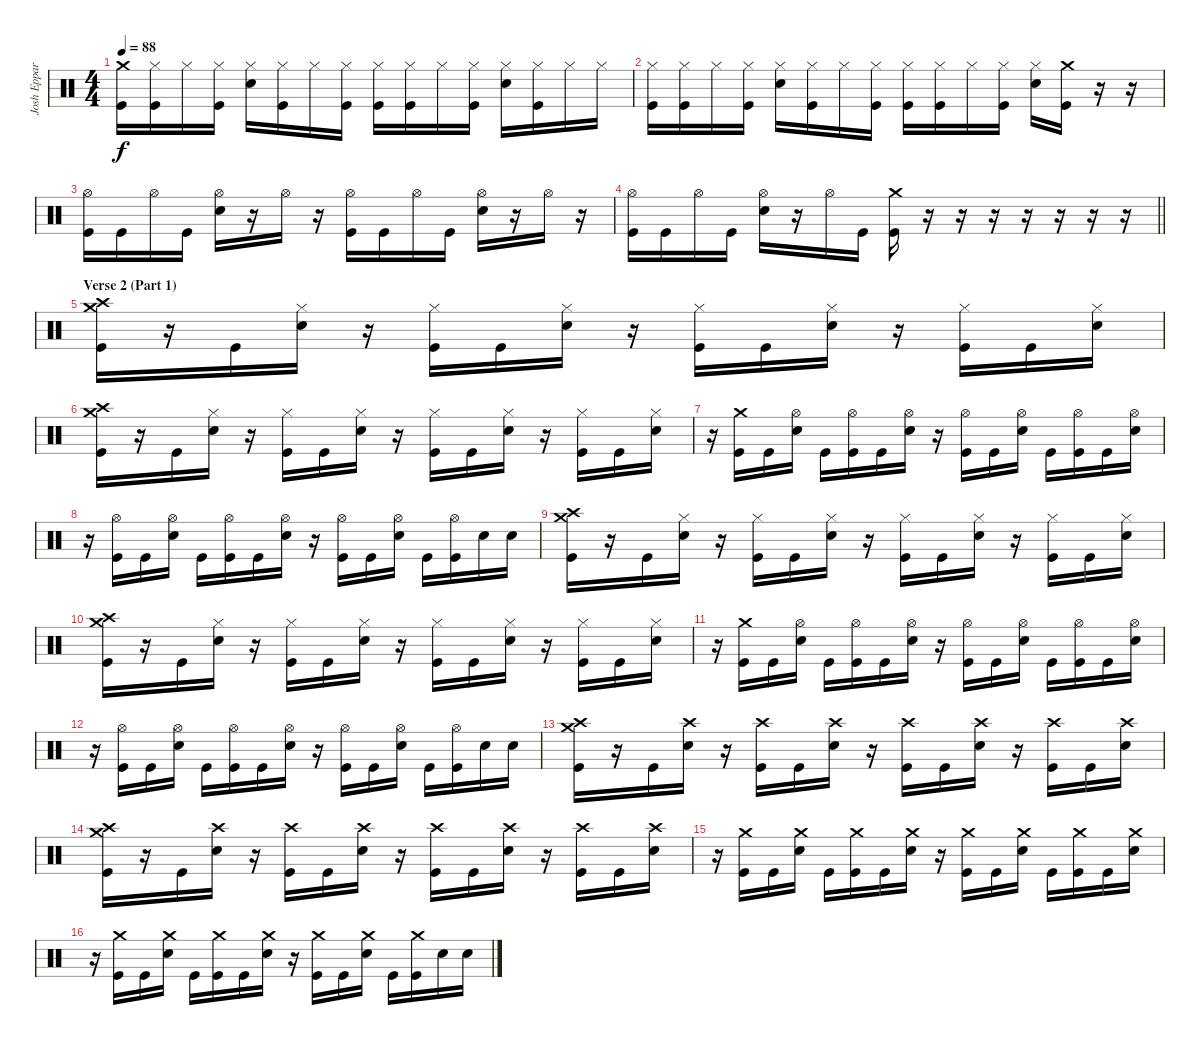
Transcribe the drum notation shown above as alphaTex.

\track ("Josh Eppard (Drums)" "Josh Eppar") {instrument percussion}
\staff {score}
\articulation defaults
\ts (4 4)
\tempo 88
\clef neutral
\ks c
("Crash medium (hit)" "Kick (hit)").16{dy f} ("Hi-Hat (closed)" "Kick (hit)").16 "Hi-Hat (closed)".16 ("Hi-Hat (closed)" "Kick (hit)").16 ("Hi-Hat (closed)" "Electric Snare (hit)").16 ("Hi-Hat (closed)" "Kick (hit)").16 "Hi-Hat (closed)".16 ("Hi-Hat (closed)" "Kick (hit)").16 ("Hi-Hat (closed)" "Kick (hit)").16 ("Hi-Hat (closed)" "Kick (hit)").16 "Hi-Hat (closed)".16 ("Hi-Hat (closed)" "Kick (hit)").16 ("Hi-Hat (closed)" "Electric Snare (hit)").16 ("Hi-Hat (closed)" "Kick (hit)").16 "Hi-Hat (closed)".16 "Hi-Hat (closed)".16 |
("Hi-Hat (closed)" "Kick (hit)").16 ("Hi-Hat (closed)" "Kick (hit)").16 "Hi-Hat (closed)".16 ("Hi-Hat (closed)" "Kick (hit)").16 ("Hi-Hat (closed)" "Electric Snare (hit)").16 ("Hi-Hat (closed)" "Kick (hit)").16 "Hi-Hat (closed)".16 ("Hi-Hat (closed)" "Kick (hit)").16 ("Hi-Hat (closed)" "Kick (hit)").16 ("Hi-Hat (closed)" "Kick (hit)").16 "Hi-Hat (closed)".16 ("Hi-Hat (closed)" "Kick (hit)").16 ("Hi-Hat (closed)" "Electric Snare (hit)").16 ("Crash medium (hit)" "Kick (hit)").16 r.16 r.16 |
("Hi-Hat (open)" "Kick (hit)").16 "Kick (hit)".16 "Hi-Hat (open)".16 "Kick (hit)".16 ("Hi-Hat (open)" "Electric Snare (hit)").16 r.16 "Hi-Hat (open)".16 r.16 ("Hi-Hat (open)" "Kick (hit)").16 "Kick (hit)".16 "Hi-Hat (open)".16 "Kick (hit)".16 ("Hi-Hat (open)" "Electric Snare (hit)").16 r.16 "Hi-Hat (open)".16 r.16 |
\barLineRight lightlight
("Hi-Hat (open)" "Kick (hit)").16 "Kick (hit)".16 "Hi-Hat (open)".16 "Kick (hit)".16 ("Hi-Hat (open)" "Electric Snare (hit)").16 r.16 "Hi-Hat (open)".16 "Kick (hit)".16 ("Crash medium (hit)" "Kick (hit)").16 r.16 r.16 r.16 r.16 r.16 r.16 r.16 |
\section ("" "Verse 2 (Part 1)")
("Crash high (hit)" "Crash medium (hit)" "Kick (hit)").16 r.16 "Kick (hit)".16 ("Hi-Hat (closed)" "Electric Snare (hit)").16 r.16 ("Hi-Hat (closed)" "Kick (hit)").16 "Kick (hit)".16 ("Hi-Hat (closed)" "Electric Snare (hit)").16 r.16 ("Hi-Hat (closed)" "Kick (hit)").16 "Kick (hit)".16 ("Hi-Hat (closed)" "Electric Snare (hit)").16 r.16 ("Hi-Hat (closed)" "Kick (hit)").16 "Kick (hit)".16 ("Hi-Hat (closed)" "Electric Snare (hit)").16 |
("Crash high (hit)" "Crash medium (hit)" "Kick (hit)").16 r.16 "Kick (hit)".16 ("Hi-Hat (closed)" "Electric Snare (hit)").16 r.16 ("Hi-Hat (closed)" "Kick (hit)").16 "Kick (hit)".16 ("Hi-Hat (closed)" "Electric Snare (hit)").16 r.16 ("Hi-Hat (closed)" "Kick (hit)").16 "Kick (hit)".16 ("Hi-Hat (closed)" "Electric Snare (hit)").16 r.16 ("Hi-Hat (closed)" "Kick (hit)").16 "Kick (hit)".16 ("Hi-Hat (closed)" "Electric Snare (hit)").16 |
r.16 ("Crash medium (hit)" "Kick (hit)").16 "Kick (hit)".16 ("Hi-Hat (open)" "Electric Snare (hit)").16 "Kick (hit)".16 ("Hi-Hat (open)" "Kick (hit)").16 "Kick (hit)".16 ("Hi-Hat (open)" "Electric Snare (hit)").16 r.16 ("Hi-Hat (open)" "Kick (hit)").16 "Kick (hit)".16 ("Hi-Hat (open)" "Electric Snare (hit)").16 "Kick (hit)".16 ("Hi-Hat (open)" "Kick (hit)").16 "Kick (hit)".16 ("Hi-Hat (open)" "Electric Snare (hit)").16 |
r.16 ("Hi-Hat (open)" "Kick (hit)").16 "Kick (hit)".16 ("Hi-Hat (open)" "Electric Snare (hit)").16 "Kick (hit)".16 ("Hi-Hat (open)" "Kick (hit)").16 "Kick (hit)".16 ("Hi-Hat (open)" "Electric Snare (hit)").16 r.16 ("Hi-Hat (open)" "Kick (hit)").16 "Kick (hit)".16 ("Hi-Hat (open)" "Electric Snare (hit)").16 "Kick (hit)".16 ("Hi-Hat (open)" "Kick (hit)").16 "Electric Snare (hit)".16 "Electric Snare (hit)".16 |
("Crash high (hit)" "Crash medium (hit)" "Kick (hit)").16 r.16 "Kick (hit)".16 ("Hi-Hat (closed)" "Electric Snare (hit)").16 r.16 ("Hi-Hat (closed)" "Kick (hit)").16 "Kick (hit)".16 ("Hi-Hat (closed)" "Electric Snare (hit)").16 r.16 ("Hi-Hat (closed)" "Kick (hit)").16 "Kick (hit)".16 ("Hi-Hat (closed)" "Electric Snare (hit)").16 r.16 ("Hi-Hat (closed)" "Kick (hit)").16 "Kick (hit)".16 ("Hi-Hat (closed)" "Electric Snare (hit)").16 |
("Crash high (hit)" "Crash medium (hit)" "Kick (hit)").16 r.16 "Kick (hit)".16 ("Hi-Hat (closed)" "Electric Snare (hit)").16 r.16 ("Hi-Hat (closed)" "Kick (hit)").16 "Kick (hit)".16 ("Hi-Hat (closed)" "Electric Snare (hit)").16 r.16 ("Hi-Hat (closed)" "Kick (hit)").16 "Kick (hit)".16 ("Hi-Hat (closed)" "Electric Snare (hit)").16 r.16 ("Hi-Hat (closed)" "Kick (hit)").16 "Kick (hit)".16 ("Hi-Hat (closed)" "Electric Snare (hit)").16 |
r.16 ("Crash medium (hit)" "Kick (hit)").16 "Kick (hit)".16 ("Hi-Hat (open)" "Electric Snare (hit)").16 "Kick (hit)".16 ("Hi-Hat (open)" "Kick (hit)").16 "Kick (hit)".16 ("Hi-Hat (open)" "Electric Snare (hit)").16 r.16 ("Hi-Hat (open)" "Kick (hit)").16 "Kick (hit)".16 ("Hi-Hat (open)" "Electric Snare (hit)").16 "Kick (hit)".16 ("Hi-Hat (open)" "Kick (hit)").16 "Kick (hit)".16 ("Hi-Hat (open)" "Electric Snare (hit)").16 |
r.16 ("Hi-Hat (open)" "Kick (hit)").16 "Kick (hit)".16 ("Hi-Hat (open)" "Electric Snare (hit)").16 "Kick (hit)".16 ("Hi-Hat (open)" "Kick (hit)").16 "Kick (hit)".16 ("Hi-Hat (open)" "Electric Snare (hit)").16 r.16 ("Hi-Hat (open)" "Kick (hit)").16 "Kick (hit)".16 ("Hi-Hat (open)" "Electric Snare (hit)").16 "Kick (hit)".16 ("Hi-Hat (open)" "Kick (hit)").16 "Electric Snare (hit)".16 "Electric Snare (hit)".16 |
("Crash high (hit)" "Crash medium (hit)" "Kick (hit)").16 r.16 "Kick (hit)".16 ("Crash high (hit)" "Electric Snare (hit)").16 r.16 ("Crash high (hit)" "Kick (hit)").16 "Kick (hit)".16 ("Crash high (hit)" "Electric Snare (hit)").16 r.16 ("Crash high (hit)" "Kick (hit)").16 "Kick (hit)".16 ("Crash high (hit)" "Electric Snare (hit)").16 r.16 ("Crash high (hit)" "Kick (hit)").16 "Kick (hit)".16 ("Crash high (hit)" "Electric Snare (hit)").16 |
("Crash high (hit)" "Crash medium (hit)" "Kick (hit)").16 r.16 "Kick (hit)".16 ("Crash high (hit)" "Electric Snare (hit)").16 r.16 ("Crash high (hit)" "Kick (hit)").16 "Kick (hit)".16 ("Crash high (hit)" "Electric Snare (hit)").16 r.16 ("Crash high (hit)" "Kick (hit)").16 "Kick (hit)".16 ("Crash high (hit)" "Electric Snare (hit)").16 r.16 ("Crash high (hit)" "Kick (hit)").16 "Kick (hit)".16 ("Crash high (hit)" "Electric Snare (hit)").16 |
r.16 ("Crash medium (hit)" "Kick (hit)").16 "Kick (hit)".16 ("Crash medium (hit)" "Electric Snare (hit)").16 "Kick (hit)".16 ("Crash medium (hit)" "Kick (hit)").16 "Kick (hit)".16 ("Crash medium (hit)" "Electric Snare (hit)").16 r.16 ("Crash medium (hit)" "Kick (hit)").16 "Kick (hit)".16 ("Crash medium (hit)" "Electric Snare (hit)").16 "Kick (hit)".16 ("Crash medium (hit)" "Kick (hit)").16 "Kick (hit)".16 ("Crash medium (hit)" "Electric Snare (hit)").16 |
r.16 ("Crash medium (hit)" "Kick (hit)").16 "Kick (hit)".16 ("Crash medium (hit)" "Electric Snare (hit)").16 "Kick (hit)".16 ("Crash medium (hit)" "Kick (hit)").16 "Kick (hit)".16 ("Crash medium (hit)" "Electric Snare (hit)").16 r.16 ("Crash medium (hit)" "Kick (hit)").16 "Kick (hit)".16 ("Crash medium (hit)" "Electric Snare (hit)").16 "Kick (hit)".16 ("Crash medium (hit)" "Kick (hit)").16 "Electric Snare (hit)".16 "Electric Snare (hit)".16
